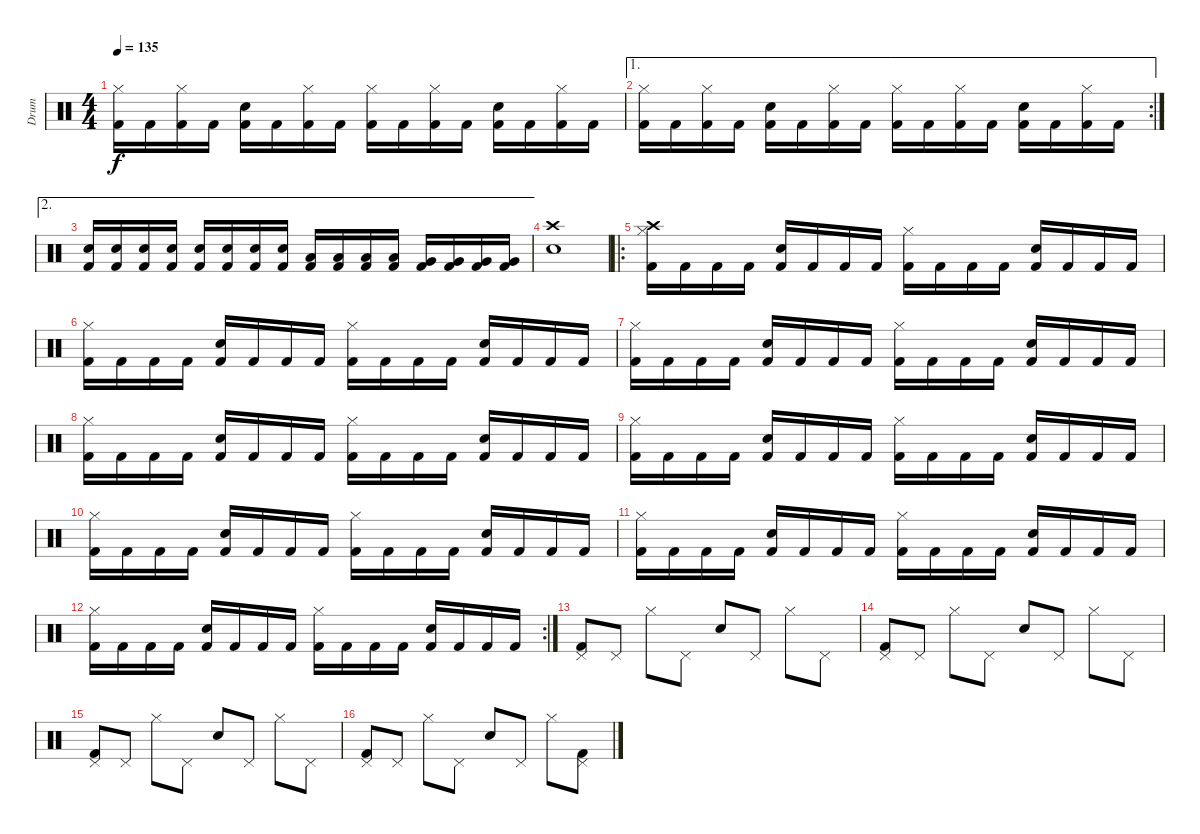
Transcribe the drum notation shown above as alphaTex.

\track ("Drum" "Drum") {instrument percussion}
\staff {score}
\articulation defaults
\ts (4 4)
\tempo 135
\clef neutral
\ks c
("Hi-Hat (closed)" "Kick (hit) 2").16{dy f} "Kick (hit) 2".16 ("Hi-Hat (closed)" "Kick (hit) 2").16 "Kick (hit) 2".16 ("Electric Snare (hit)" "Kick (hit) 2").16 "Kick (hit) 2".16 ("Hi-Hat (closed)" "Kick (hit) 2").16 "Kick (hit) 2".16 ("Hi-Hat (closed)" "Kick (hit) 2").16 "Kick (hit) 2".16 ("Hi-Hat (closed)" "Kick (hit) 2").16 "Kick (hit) 2".16 ("Electric Snare (hit)" "Kick (hit) 2").16 "Kick (hit) 2".16 ("Hi-Hat (closed)" "Kick (hit) 2").16 "Kick (hit) 2".16 |
\ae 1
\rc 2
("Hi-Hat (closed)" "Kick (hit) 2").16 "Kick (hit) 2".16 ("Hi-Hat (closed)" "Kick (hit) 2").16 "Kick (hit) 2".16 ("Electric Snare (hit)" "Kick (hit) 2").16 "Kick (hit) 2".16 ("Hi-Hat (closed)" "Kick (hit) 2").16 "Kick (hit) 2".16 ("Hi-Hat (closed)" "Kick (hit) 2").16 "Kick (hit) 2".16 ("Hi-Hat (closed)" "Kick (hit) 2").16 "Kick (hit) 2".16 ("Electric Snare (hit)" "Kick (hit) 2").16 "Kick (hit) 2".16 ("Hi-Hat (closed)" "Kick (hit) 2").16 "Kick (hit) 2".16 |
\ae 2
("Electric Snare (hit)" "Kick (hit) 2").16 ("Electric Snare (hit)" "Kick (hit) 2").16 ("Electric Snare (hit)" "Kick (hit) 2").16 ("Electric Snare (hit)" "Kick (hit) 2").16 ("Electric Snare (hit)" "Kick (hit) 2").16 ("Electric Snare (hit)" "Kick (hit) 2").16 ("Electric Snare (hit)" "Kick (hit) 2").16 ("Electric Snare (hit)" "Kick (hit) 2").16 ("Low Tom (hit)" "Kick (hit) 2").16 ("Low Tom (hit)" "Kick (hit) 2").16 ("Low Tom (hit)" "Kick (hit) 2").16 ("Low Tom (hit)" "Kick (hit) 2").16 ("Very Low Tom (hit)" "Kick (hit) 2").16 ("Very Low Tom (hit)" "Kick (hit) 2").16 ("Very Low Tom (hit)" "Kick (hit) 2").16 ("Very Low Tom (hit)" "Kick (hit) 2").16 |
("Crash high (hit)" "Electric Snare (hit)").1 |
\ro
("Crash high (hit)" "Hi-Hat (closed)" "Kick (hit) 2").16 "Kick (hit) 2".16 "Kick (hit) 2".16 "Kick (hit) 2".16 ("Electric Snare (hit)" "Kick (hit) 2").16 "Kick (hit) 2".16 "Kick (hit) 2".16 "Kick (hit) 2".16 ("Hi-Hat (closed)" "Kick (hit) 2").16 "Kick (hit) 2".16 "Kick (hit) 2".16 "Kick (hit) 2".16 ("Electric Snare (hit)" "Kick (hit) 2").16 "Kick (hit) 2".16 "Kick (hit) 2".16 "Kick (hit) 2".16 |
("Hi-Hat (closed)" "Kick (hit) 2").16 "Kick (hit) 2".16 "Kick (hit) 2".16 "Kick (hit) 2".16 ("Electric Snare (hit)" "Kick (hit) 2").16 "Kick (hit) 2".16 "Kick (hit) 2".16 "Kick (hit) 2".16 ("Hi-Hat (closed)" "Kick (hit) 2").16 "Kick (hit) 2".16 "Kick (hit) 2".16 "Kick (hit) 2".16 ("Electric Snare (hit)" "Kick (hit) 2").16 "Kick (hit) 2".16 "Kick (hit) 2".16 "Kick (hit) 2".16 |
("Hi-Hat (closed)" "Kick (hit) 2").16 "Kick (hit) 2".16 "Kick (hit) 2".16 "Kick (hit) 2".16 ("Electric Snare (hit)" "Kick (hit) 2").16 "Kick (hit) 2".16 "Kick (hit) 2".16 "Kick (hit) 2".16 ("Hi-Hat (closed)" "Kick (hit) 2").16 "Kick (hit) 2".16 "Kick (hit) 2".16 "Kick (hit) 2".16 ("Electric Snare (hit)" "Kick (hit) 2").16 "Kick (hit) 2".16 "Kick (hit) 2".16 "Kick (hit) 2".16 |
("Hi-Hat (closed)" "Kick (hit) 2").16 "Kick (hit) 2".16 "Kick (hit) 2".16 "Kick (hit) 2".16 ("Electric Snare (hit)" "Kick (hit) 2").16 "Kick (hit) 2".16 "Kick (hit) 2".16 "Kick (hit) 2".16 ("Hi-Hat (closed)" "Kick (hit) 2").16 "Kick (hit) 2".16 "Kick (hit) 2".16 "Kick (hit) 2".16 ("Electric Snare (hit)" "Kick (hit) 2").16 "Kick (hit) 2".16 "Kick (hit) 2".16 "Kick (hit) 2".16 |
("Hi-Hat (closed)" "Kick (hit) 2").16 "Kick (hit) 2".16 "Kick (hit) 2".16 "Kick (hit) 2".16 ("Electric Snare (hit)" "Kick (hit) 2").16 "Kick (hit) 2".16 "Kick (hit) 2".16 "Kick (hit) 2".16 ("Hi-Hat (closed)" "Kick (hit) 2").16 "Kick (hit) 2".16 "Kick (hit) 2".16 "Kick (hit) 2".16 ("Electric Snare (hit)" "Kick (hit) 2").16 "Kick (hit) 2".16 "Kick (hit) 2".16 "Kick (hit) 2".16 |
("Hi-Hat (closed)" "Kick (hit) 2").16 "Kick (hit) 2".16 "Kick (hit) 2".16 "Kick (hit) 2".16 ("Electric Snare (hit)" "Kick (hit) 2").16 "Kick (hit) 2".16 "Kick (hit) 2".16 "Kick (hit) 2".16 ("Hi-Hat (closed)" "Kick (hit) 2").16 "Kick (hit) 2".16 "Kick (hit) 2".16 "Kick (hit) 2".16 ("Electric Snare (hit)" "Kick (hit) 2").16 "Kick (hit) 2".16 "Kick (hit) 2".16 "Kick (hit) 2".16 |
("Hi-Hat (closed)" "Kick (hit) 2").16 "Kick (hit) 2".16 "Kick (hit) 2".16 "Kick (hit) 2".16 ("Electric Snare (hit)" "Kick (hit) 2").16 "Kick (hit) 2".16 "Kick (hit) 2".16 "Kick (hit) 2".16 ("Hi-Hat (closed)" "Kick (hit) 2").16 "Kick (hit) 2".16 "Kick (hit) 2".16 "Kick (hit) 2".16 ("Electric Snare (hit)" "Kick (hit) 2").16 "Kick (hit) 2".16 "Kick (hit) 2".16 "Kick (hit) 2".16 |
\rc 2
("Hi-Hat (closed)" "Kick (hit) 2").16 "Kick (hit) 2".16 "Kick (hit) 2".16 "Kick (hit) 2".16 ("Electric Snare (hit)" "Kick (hit) 2").16 "Kick (hit) 2".16 "Kick (hit) 2".16 "Kick (hit) 2".16 ("Hi-Hat (closed)" "Kick (hit) 2").16 "Kick (hit) 2".16 "Kick (hit) 2".16 "Kick (hit) 2".16 ("Electric Snare (hit)" "Kick (hit) 2").16 "Kick (hit) 2".16 "Kick (hit) 2".16 "Kick (hit) 2".16 |
("Pedal Hi-Hat (hit)" "Kick (hit) 2").8 "Pedal Hi-Hat (hit)".8 "Hi-Hat (closed)".8 "Pedal Hi-Hat (hit)".8 "Electric Snare (hit)".8 "Pedal Hi-Hat (hit)".8 "Hi-Hat (closed)".8 "Pedal Hi-Hat (hit)".8 |
("Pedal Hi-Hat (hit)" "Kick (hit) 2").8 "Pedal Hi-Hat (hit)".8 "Hi-Hat (closed)".8 "Pedal Hi-Hat (hit)".8 "Electric Snare (hit)".8 "Pedal Hi-Hat (hit)".8 "Hi-Hat (closed)".8 "Pedal Hi-Hat (hit)".8 |
("Pedal Hi-Hat (hit)" "Kick (hit) 2").8 "Pedal Hi-Hat (hit)".8 "Hi-Hat (closed)".8 "Pedal Hi-Hat (hit)".8 "Electric Snare (hit)".8 "Pedal Hi-Hat (hit)".8 "Hi-Hat (closed)".8 "Pedal Hi-Hat (hit)".8 |
("Pedal Hi-Hat (hit)" "Kick (hit) 2").8 "Pedal Hi-Hat (hit)".8 "Hi-Hat (closed)".8 "Pedal Hi-Hat (hit)".8 "Electric Snare (hit)".8 "Pedal Hi-Hat (hit)".8 "Hi-Hat (closed)".8 ("Pedal Hi-Hat (hit)" "Kick (hit) 2").8
